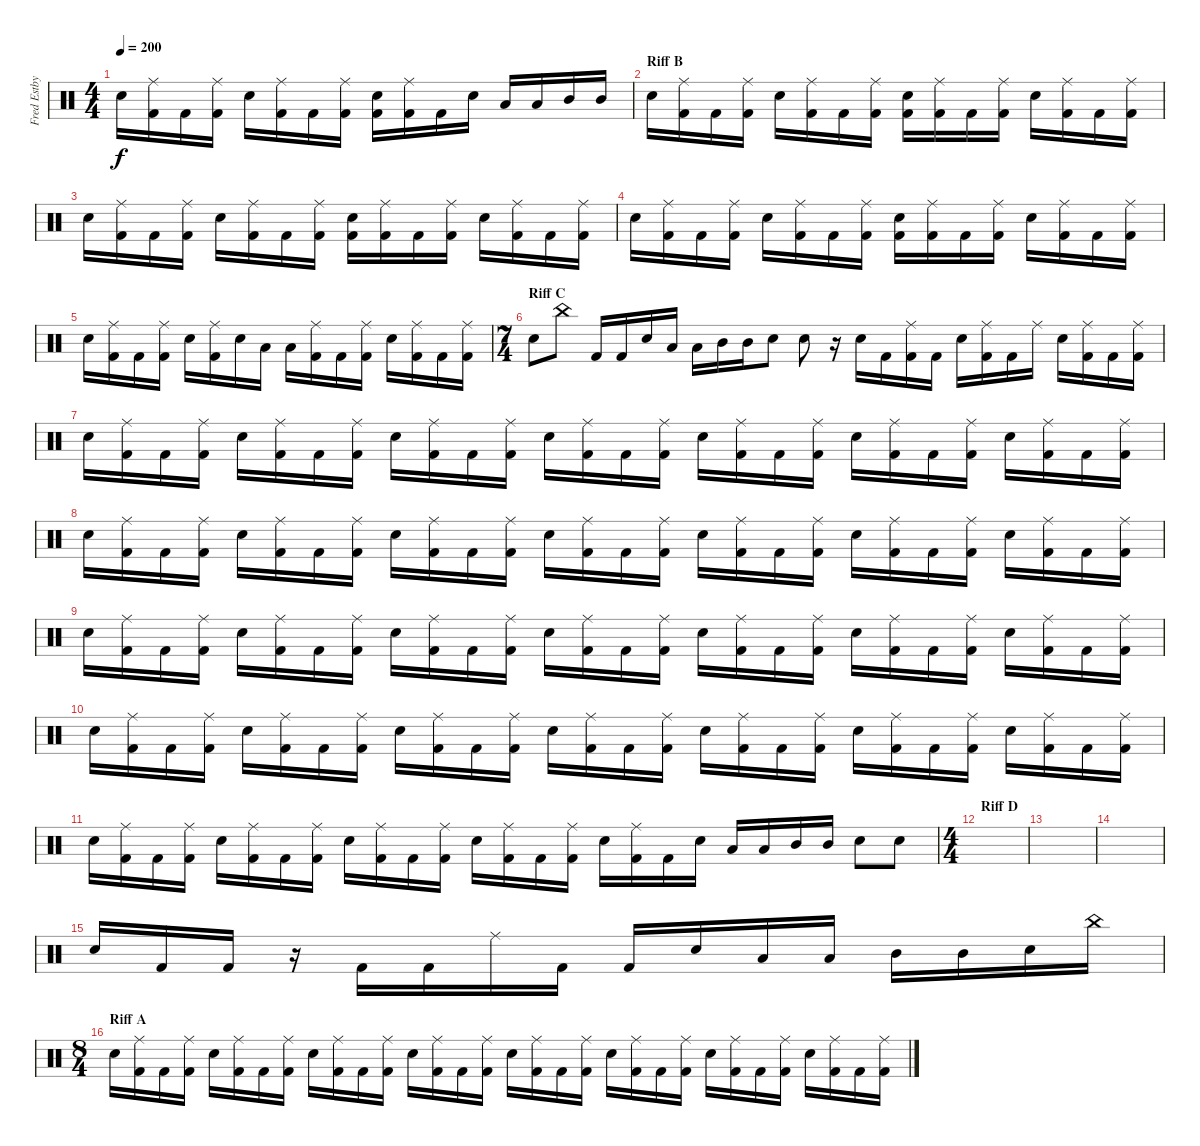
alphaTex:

\track ("Fred Estby" "Fred Estby") {instrument percussion}
\staff {score}
\articulation defaults
\ts (4 4)
\tempo 200
\clef neutral
\ks c "Electric Snare (hit)".16{dy f}
("Ride (middle)" "Kick (hit) 2").16 "Kick (hit) 2".16 ("Ride (middle)" "Kick (hit) 2").16 "Electric Snare (hit)".16 ("Ride (middle)" "Kick (hit) 2").16 "Kick (hit) 2".16 ("Ride (middle)" "Kick (hit) 2").16 ("Electric Snare (hit)" "Kick (hit) 2").16 ("Ride (middle)" "Kick (hit) 2").16 "Kick (hit) 2".16 "Electric Snare (hit)".16 "Low Tom (hit)".16 "Low Tom (hit)".16 "Mid Tom (hit)".16 "Mid Tom (hit)".16 |
\section ("" "Riff B")
"Electric Snare (hit)".16 ("Ride (middle)" "Kick (hit) 2").16 "Kick (hit) 2".16 ("Ride (middle)" "Kick (hit) 2").16 "Electric Snare (hit)".16 ("Ride (middle)" "Kick (hit) 2").16 "Kick (hit) 2".16 ("Ride (middle)" "Kick (hit) 2").16 ("Electric Snare (hit)" "Kick (hit) 2").16 ("Ride (middle)" "Kick (hit) 2").16 "Kick (hit) 2".16 ("Ride (middle)" "Kick (hit) 2").16 "Electric Snare (hit)".16 ("Ride (middle)" "Kick (hit) 2").16 "Kick (hit) 2".16 ("Ride (middle)" "Kick (hit) 2").16 |
"Electric Snare (hit)".16 ("Ride (middle)" "Kick (hit) 2").16 "Kick (hit) 2".16 ("Ride (middle)" "Kick (hit) 2").16 "Electric Snare (hit)".16 ("Ride (middle)" "Kick (hit) 2").16 "Kick (hit) 2".16 ("Ride (middle)" "Kick (hit) 2").16 ("Electric Snare (hit)" "Kick (hit) 2").16 ("Ride (middle)" "Kick (hit) 2").16 "Kick (hit) 2".16 ("Ride (middle)" "Kick (hit) 2").16 "Electric Snare (hit)".16 ("Ride (middle)" "Kick (hit) 2").16 "Kick (hit) 2".16 ("Ride (middle)" "Kick (hit) 2").16 |
"Electric Snare (hit)".16 ("Ride (middle)" "Kick (hit) 2").16 "Kick (hit) 2".16 ("Ride (middle)" "Kick (hit) 2").16 "Electric Snare (hit)".16 ("Ride (middle)" "Kick (hit) 2").16 "Kick (hit) 2".16 ("Ride (middle)" "Kick (hit) 2").16 ("Electric Snare (hit)" "Kick (hit) 2").16 ("Ride (middle)" "Kick (hit) 2").16 "Kick (hit) 2".16 ("Ride (middle)" "Kick (hit) 2").16 "Electric Snare (hit)".16 ("Ride (middle)" "Kick (hit) 2").16 "Kick (hit) 2".16 ("Ride (middle)" "Kick (hit) 2").16 |
"Electric Snare (hit)".16 ("Ride (middle)" "Kick (hit) 2").16 "Kick (hit) 2".16 ("Ride (middle)" "Kick (hit) 2").16 "Electric Snare (hit)".16 ("Ride (middle)" "Kick (hit) 2").16 "Electric Snare (hit)".16 "Low Tom (hit)".16 "Low Tom (hit)".16 ("Ride (middle)" "Kick (hit) 2").16 "Kick (hit) 2".16 ("Ride (middle)" "Kick (hit) 2").16 "Electric Snare (hit)".16 ("Ride (middle)" "Kick (hit) 2").16 "Kick (hit) 2".16 ("Ride (middle)" "Kick (hit) 2").16 |
\ts (7 4)
\section ("" "Riff C")
"Electric Snare (hit)".8 "China (hit)".8 "Kick (hit) 2".16 "Kick (hit) 2".16 "Electric Snare (hit)".16 "Low Tom (hit)".16 "Low Tom (hit)".16 "Mid Tom (hit)".16 "Mid Tom (hit)".16 "Electric Snare (hit)".8 "Electric Snare (hit)".8 r.16 "Electric Snare (hit)".16 "Kick (hit) 2".16 ("Ride (middle)" "Kick (hit) 2").16 "Kick (hit) 2".16 "Electric Snare (hit)".16 ("Ride (middle)" "Kick (hit) 2").16 "Kick (hit) 2".16 "Ride (middle)".16 "Electric Snare (hit)".16 ("Ride (middle)" "Kick (hit) 2").16 "Kick (hit) 2".16 ("Ride (middle)" "Kick (hit) 2").16 |
"Electric Snare (hit)".16 ("Ride (middle)" "Kick (hit) 2").16 "Kick (hit) 2".16 ("Ride (middle)" "Kick (hit) 2").16 "Electric Snare (hit)".16 ("Ride (middle)" "Kick (hit) 2").16 "Kick (hit) 2".16 ("Ride (middle)" "Kick (hit) 2").16 "Electric Snare (hit)".16 ("Ride (middle)" "Kick (hit) 2").16 "Kick (hit) 2".16 ("Ride (middle)" "Kick (hit) 2").16 "Electric Snare (hit)".16 ("Ride (middle)" "Kick (hit) 2").16 "Kick (hit) 2".16 ("Ride (middle)" "Kick (hit) 2").16 "Electric Snare (hit)".16 ("Ride (middle)" "Kick (hit) 2").16 "Kick (hit) 2".16 ("Ride (middle)" "Kick (hit) 2").16 "Electric Snare (hit)".16 ("Ride (middle)" "Kick (hit) 2").16 "Kick (hit) 2".16 ("Ride (middle)" "Kick (hit) 2").16 "Electric Snare (hit)".16 ("Ride (middle)" "Kick (hit) 2").16 "Kick (hit) 2".16 ("Ride (middle)" "Kick (hit) 2").16 |
"Electric Snare (hit)".16 ("Ride (middle)" "Kick (hit) 2").16 "Kick (hit) 2".16 ("Ride (middle)" "Kick (hit) 2").16 "Electric Snare (hit)".16 ("Ride (middle)" "Kick (hit) 2").16 "Kick (hit) 2".16 ("Ride (middle)" "Kick (hit) 2").16 "Electric Snare (hit)".16 ("Ride (middle)" "Kick (hit) 2").16 "Kick (hit) 2".16 ("Ride (middle)" "Kick (hit) 2").16 "Electric Snare (hit)".16 ("Ride (middle)" "Kick (hit) 2").16 "Kick (hit) 2".16 ("Ride (middle)" "Kick (hit) 2").16 "Electric Snare (hit)".16 ("Ride (middle)" "Kick (hit) 2").16 "Kick (hit) 2".16 ("Ride (middle)" "Kick (hit) 2").16 "Electric Snare (hit)".16 ("Ride (middle)" "Kick (hit) 2").16 "Kick (hit) 2".16 ("Ride (middle)" "Kick (hit) 2").16 "Electric Snare (hit)".16 ("Ride (middle)" "Kick (hit) 2").16 "Kick (hit) 2".16 ("Ride (middle)" "Kick (hit) 2").16 |
"Electric Snare (hit)".16 ("Ride (middle)" "Kick (hit) 2").16 "Kick (hit) 2".16 ("Ride (middle)" "Kick (hit) 2").16 "Electric Snare (hit)".16 ("Ride (middle)" "Kick (hit) 2").16 "Kick (hit) 2".16 ("Ride (middle)" "Kick (hit) 2").16 "Electric Snare (hit)".16 ("Ride (middle)" "Kick (hit) 2").16 "Kick (hit) 2".16 ("Ride (middle)" "Kick (hit) 2").16 "Electric Snare (hit)".16 ("Ride (middle)" "Kick (hit) 2").16 "Kick (hit) 2".16 ("Ride (middle)" "Kick (hit) 2").16 "Electric Snare (hit)".16 ("Ride (middle)" "Kick (hit) 2").16 "Kick (hit) 2".16 ("Ride (middle)" "Kick (hit) 2").16 "Electric Snare (hit)".16 ("Ride (middle)" "Kick (hit) 2").16 "Kick (hit) 2".16 ("Ride (middle)" "Kick (hit) 2").16 "Electric Snare (hit)".16 ("Ride (middle)" "Kick (hit) 2").16 "Kick (hit) 2".16 ("Ride (middle)" "Kick (hit) 2").16 |
"Electric Snare (hit)".16 ("Ride (middle)" "Kick (hit) 2").16 "Kick (hit) 2".16 ("Ride (middle)" "Kick (hit) 2").16 "Electric Snare (hit)".16 ("Ride (middle)" "Kick (hit) 2").16 "Kick (hit) 2".16 ("Ride (middle)" "Kick (hit) 2").16 "Electric Snare (hit)".16 ("Ride (middle)" "Kick (hit) 2").16 "Kick (hit) 2".16 ("Ride (middle)" "Kick (hit) 2").16 "Electric Snare (hit)".16 ("Ride (middle)" "Kick (hit) 2").16 "Kick (hit) 2".16 ("Ride (middle)" "Kick (hit) 2").16 "Electric Snare (hit)".16 ("Ride (middle)" "Kick (hit) 2").16 "Kick (hit) 2".16 ("Ride (middle)" "Kick (hit) 2").16 "Electric Snare (hit)".16 ("Ride (middle)" "Kick (hit) 2").16 "Kick (hit) 2".16 ("Ride (middle)" "Kick (hit) 2").16 "Electric Snare (hit)".16 ("Ride (middle)" "Kick (hit) 2").16 "Kick (hit) 2".16 ("Ride (middle)" "Kick (hit) 2").16 |
"Electric Snare (hit)".16 ("Ride (middle)" "Kick (hit) 2").16 "Kick (hit) 2".16 ("Ride (middle)" "Kick (hit) 2").16 "Electric Snare (hit)".16 ("Ride (middle)" "Kick (hit) 2").16 "Kick (hit) 2".16 ("Ride (middle)" "Kick (hit) 2").16 "Electric Snare (hit)".16 ("Ride (middle)" "Kick (hit) 2").16 "Kick (hit) 2".16 ("Ride (middle)" "Kick (hit) 2").16 "Electric Snare (hit)".16 ("Ride (middle)" "Kick (hit) 2").16 "Kick (hit) 2".16 ("Ride (middle)" "Kick (hit) 2").16 "Electric Snare (hit)".16 ("Ride (middle)" "Kick (hit) 2").16 "Kick (hit) 2".16 "Electric Snare (hit)".16 "Low Tom (hit)".16 "Low Tom (hit)".16 "Mid Tom (hit)".16 "Mid Tom (hit)".16 "Electric Snare (hit)".8 "Electric Snare (hit)".8 |
\ts (4 4)
\section ("" "Riff D")
|
|
|
"Electric Snare (hit)".16 "Kick (hit) 2".16 "Kick (hit) 2".16 r.16 "Kick (hit) 2".16 "Kick (hit) 2".16 "Ride (middle)".16 "Kick (hit) 2".16 "Kick (hit) 2".16 "Electric Snare (hit)".16 "Low Tom (hit)".16 "Low Tom (hit)".16 "Mid Tom (hit)".16 "Mid Tom (hit)".16 "Electric Snare (hit)".16 "China (hit)".16 |
\ts (8 4)
\section ("" "Riff A")
"Electric Snare (hit)".16 ("Ride (middle)" "Kick (hit) 2").16 "Kick (hit) 2".16 ("Ride (middle)" "Kick (hit) 2").16 "Electric Snare (hit)".16 ("Ride (middle)" "Kick (hit) 2").16 "Kick (hit) 2".16 ("Ride (middle)" "Kick (hit) 2").16 "Electric Snare (hit)".16 ("Ride (middle)" "Kick (hit) 2").16 "Kick (hit) 2".16 ("Ride (middle)" "Kick (hit) 2").16 "Electric Snare (hit)".16 ("Ride (middle)" "Kick (hit) 2").16 "Kick (hit) 2".16 ("Ride (middle)" "Kick (hit) 2").16 "Electric Snare (hit)".16 ("Ride (middle)" "Kick (hit) 2").16 "Kick (hit) 2".16 ("Ride (middle)" "Kick (hit) 2").16 "Electric Snare (hit)".16 ("Ride (middle)" "Kick (hit) 2").16 "Kick (hit) 2".16 ("Ride (middle)" "Kick (hit) 2").16 "Electric Snare (hit)".16 ("Ride (middle)" "Kick (hit) 2").16 "Kick (hit) 2".16 ("Ride (middle)" "Kick (hit) 2").16 "Electric Snare (hit)".16 ("Ride (middle)" "Kick (hit) 2").16 "Kick (hit) 2".16 ("Ride (middle)" "Kick (hit) 2").16
